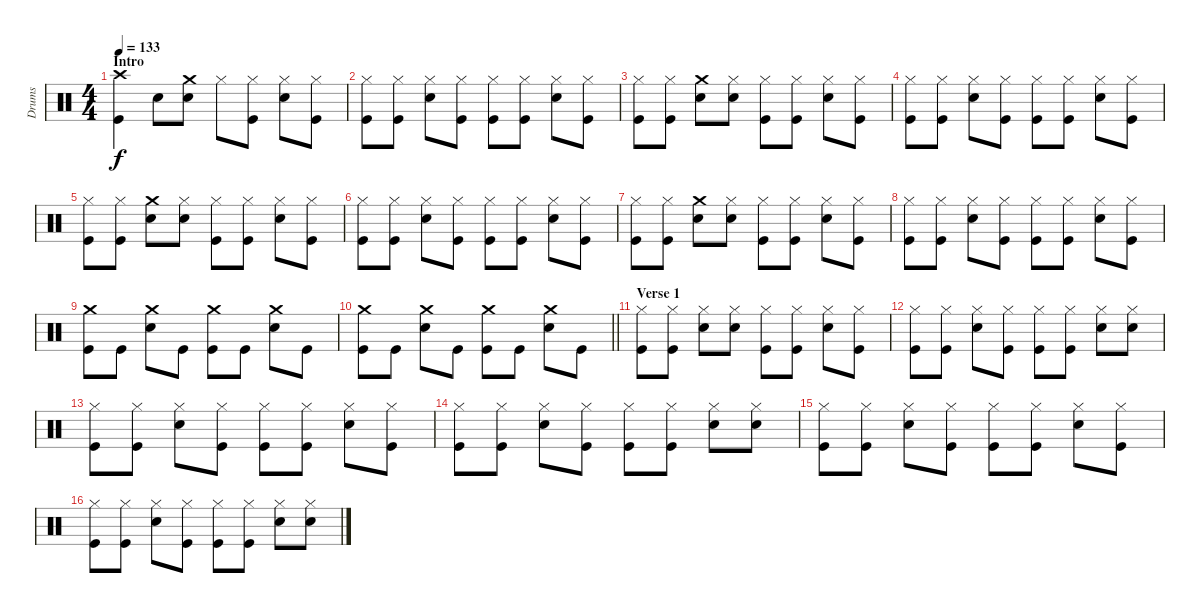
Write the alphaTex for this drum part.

\track ("Drums" "Drums") {instrument percussion}
\staff {score}
\articulation defaults
\ts (4 4)
\section ("" "Intro")
\tempo 133
\clef neutral
\ks c
("Crash high (hit)" "Kick (hit)").4{dy f} "Snare (hit) 2".8 ("Crash medium (hit)" "Snare (hit) 2").8 "Hi-Hat (closed)".8 ("Hi-Hat (closed)" "Kick (hit)").8 ("Hi-Hat (closed)" "Snare (hit) 2").8 ("Hi-Hat (closed)" "Kick (hit)").8 |
("Hi-Hat (closed)" "Kick (hit)").8 ("Hi-Hat (closed)" "Kick (hit)").8 ("Hi-Hat (closed)" "Snare (hit) 2").8 ("Hi-Hat (closed)" "Kick (hit)").8 ("Hi-Hat (closed)" "Kick (hit)").8 ("Hi-Hat (closed)" "Kick (hit)").8 ("Hi-Hat (closed)" "Snare (hit) 2").8 ("Hi-Hat (closed)" "Kick (hit)").8 |
("Hi-Hat (closed)" "Kick (hit)").8 ("Hi-Hat (closed)" "Kick (hit)").8 ("Crash medium (hit)" "Snare (hit) 2").8 ("Hi-Hat (closed)" "Snare (hit) 2").8 ("Hi-Hat (closed)" "Kick (hit)").8 ("Hi-Hat (closed)" "Kick (hit)").8 ("Hi-Hat (closed)" "Snare (hit) 2").8 ("Hi-Hat (closed)" "Kick (hit)").8 |
("Hi-Hat (closed)" "Kick (hit)").8 ("Hi-Hat (closed)" "Kick (hit)").8 ("Hi-Hat (closed)" "Snare (hit) 2").8 ("Hi-Hat (closed)" "Kick (hit)").8 ("Hi-Hat (closed)" "Kick (hit)").8 ("Hi-Hat (closed)" "Kick (hit)").8 ("Hi-Hat (closed)" "Snare (hit) 2").8 ("Hi-Hat (closed)" "Kick (hit)").8 |
("Hi-Hat (closed)" "Kick (hit)").8 ("Hi-Hat (closed)" "Kick (hit)").8 ("Crash medium (hit)" "Snare (hit) 2").8 ("Hi-Hat (closed)" "Snare (hit) 2").8 ("Hi-Hat (closed)" "Kick (hit)").8 ("Hi-Hat (closed)" "Kick (hit)").8 ("Hi-Hat (closed)" "Snare (hit) 2").8 ("Hi-Hat (closed)" "Kick (hit)").8 |
("Hi-Hat (closed)" "Kick (hit)").8 ("Hi-Hat (closed)" "Kick (hit)").8 ("Hi-Hat (closed)" "Snare (hit) 2").8 ("Hi-Hat (closed)" "Kick (hit)").8 ("Hi-Hat (closed)" "Kick (hit)").8 ("Hi-Hat (closed)" "Kick (hit)").8 ("Hi-Hat (closed)" "Snare (hit) 2").8 ("Hi-Hat (closed)" "Kick (hit)").8 |
("Hi-Hat (closed)" "Kick (hit)").8 ("Hi-Hat (closed)" "Kick (hit)").8 ("Crash medium (hit)" "Snare (hit) 2").8 ("Hi-Hat (closed)" "Snare (hit) 2").8 ("Hi-Hat (closed)" "Kick (hit)").8 ("Hi-Hat (closed)" "Kick (hit)").8 ("Hi-Hat (closed)" "Snare (hit) 2").8 ("Hi-Hat (closed)" "Kick (hit)").8 |
("Hi-Hat (closed)" "Kick (hit)").8 ("Hi-Hat (closed)" "Kick (hit)").8 ("Hi-Hat (closed)" "Snare (hit) 2").8 ("Hi-Hat (closed)" "Kick (hit)").8 ("Hi-Hat (closed)" "Kick (hit)").8 ("Hi-Hat (closed)" "Kick (hit)").8 ("Hi-Hat (closed)" "Snare (hit) 2").8 ("Hi-Hat (closed)" "Kick (hit)").8 |
("Crash medium (hit)" "Kick (hit)").8 "Kick (hit)".8 ("Crash medium (hit)" "Snare (hit) 2").8 "Kick (hit)".8 ("Crash medium (hit)" "Kick (hit)").8 "Kick (hit)".8 ("Crash medium (hit)" "Snare (hit) 2").8 "Kick (hit)".8 |
\barLineRight lightlight
("Crash medium (hit)" "Kick (hit)").8 "Kick (hit)".8 ("Crash medium (hit)" "Snare (hit) 2").8 "Kick (hit)".8 ("Crash medium (hit)" "Kick (hit)").8 "Kick (hit)".8 ("Crash medium (hit)" "Snare (hit) 2").8 "Kick (hit)".8 |
\section ("" "Verse 1")
("Hi-Hat (closed)" "Kick (hit)").8 ("Hi-Hat (closed)" "Kick (hit)").8 ("Hi-Hat (closed)" "Snare (hit) 2").8 ("Hi-Hat (closed)" "Snare (hit) 2").8 ("Hi-Hat (closed)" "Kick (hit)").8 ("Hi-Hat (closed)" "Kick (hit)").8 ("Hi-Hat (closed)" "Snare (hit) 2").8 ("Hi-Hat (closed)" "Kick (hit)").8 |
("Hi-Hat (closed)" "Kick (hit)").8 ("Hi-Hat (closed)" "Kick (hit)").8 ("Hi-Hat (closed)" "Snare (hit) 2").8 ("Hi-Hat (closed)" "Kick (hit)").8 ("Hi-Hat (closed)" "Kick (hit)").8 ("Hi-Hat (closed)" "Kick (hit)").8 ("Hi-Hat (closed)" "Snare (hit) 2").8 ("Hi-Hat (closed)" "Snare (hit) 2").8 |
("Hi-Hat (closed)" "Kick (hit)").8 ("Hi-Hat (closed)" "Kick (hit)").8 ("Hi-Hat (closed)" "Snare (hit) 2").8 ("Hi-Hat (closed)" "Kick (hit)").8 ("Hi-Hat (closed)" "Kick (hit)").8 ("Hi-Hat (closed)" "Kick (hit)").8 ("Hi-Hat (closed)" "Snare (hit) 2").8 ("Hi-Hat (closed)" "Kick (hit)").8 |
("Hi-Hat (closed)" "Kick (hit)").8 ("Hi-Hat (closed)" "Kick (hit)").8 ("Hi-Hat (closed)" "Snare (hit) 2").8 ("Hi-Hat (closed)" "Kick (hit)").8 ("Hi-Hat (closed)" "Kick (hit)").8 ("Hi-Hat (closed)" "Kick (hit)").8 ("Hi-Hat (closed)" "Snare (hit) 2").8 ("Hi-Hat (closed)" "Snare (hit) 2").8 |
("Hi-Hat (closed)" "Kick (hit)").8 ("Hi-Hat (closed)" "Kick (hit)").8 ("Hi-Hat (closed)" "Snare (hit) 2").8 ("Hi-Hat (closed)" "Kick (hit)").8 ("Hi-Hat (closed)" "Kick (hit)").8 ("Hi-Hat (closed)" "Kick (hit)").8 ("Hi-Hat (closed)" "Snare (hit) 2").8 ("Hi-Hat (closed)" "Kick (hit)").8 |
("Hi-Hat (closed)" "Kick (hit)").8 ("Hi-Hat (closed)" "Kick (hit)").8 ("Hi-Hat (closed)" "Snare (hit) 2").8 ("Hi-Hat (closed)" "Kick (hit)").8 ("Hi-Hat (closed)" "Kick (hit)").8 ("Hi-Hat (closed)" "Kick (hit)").8 ("Hi-Hat (closed)" "Snare (hit) 2").8 ("Hi-Hat (closed)" "Snare (hit) 2").8
